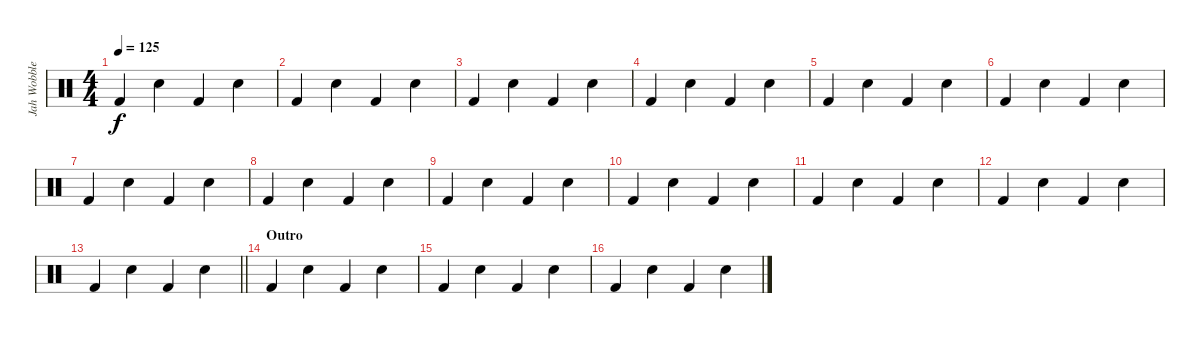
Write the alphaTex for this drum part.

\track ("Jah Wobble  (drums)" "Jah Wobble") {instrument percussion}
\staff {score}
\articulation defaults
\ts (4 4)
\tempo 125
\clef neutral
\ks c "Kick (hit) 2".4{dy f} "Electric Snare (hit)".4 "Kick (hit) 2".4 "Electric Snare (hit)".4
|
"Kick (hit) 2".4 "Electric Snare (hit)".4 "Kick (hit) 2".4 "Electric Snare (hit)".4 |
"Kick (hit) 2".4 "Electric Snare (hit)".4 "Kick (hit) 2".4 "Electric Snare (hit)".4 |
"Kick (hit) 2".4 "Electric Snare (hit)".4 "Kick (hit) 2".4 "Electric Snare (hit)".4 |
"Kick (hit) 2".4 "Electric Snare (hit)".4 "Kick (hit) 2".4 "Electric Snare (hit)".4 |
"Kick (hit) 2".4 "Electric Snare (hit)".4 "Kick (hit) 2".4 "Electric Snare (hit)".4 |
"Kick (hit) 2".4 "Electric Snare (hit)".4 "Kick (hit) 2".4 "Electric Snare (hit)".4 |
"Kick (hit) 2".4 "Electric Snare (hit)".4 "Kick (hit) 2".4 "Electric Snare (hit)".4 |
"Kick (hit) 2".4 "Electric Snare (hit)".4 "Kick (hit) 2".4 "Electric Snare (hit)".4 |
"Kick (hit) 2".4 "Electric Snare (hit)".4 "Kick (hit) 2".4 "Electric Snare (hit)".4 |
"Kick (hit) 2".4 "Electric Snare (hit)".4 "Kick (hit) 2".4 "Electric Snare (hit)".4 |
"Kick (hit) 2".4 "Electric Snare (hit)".4 "Kick (hit) 2".4 "Electric Snare (hit)".4 |
\barLineRight lightlight "Kick (hit) 2".4 "Electric Snare (hit)".4 "Kick (hit) 2".4 "Electric Snare (hit)".4
|
\section ("" "Outro")
"Kick (hit) 2".4 "Electric Snare (hit)".4 "Kick (hit) 2".4 "Electric Snare (hit)".4 |
"Kick (hit) 2".4 "Electric Snare (hit)".4 "Kick (hit) 2".4 "Electric Snare (hit)".4 |
"Kick (hit) 2".4 "Electric Snare (hit)".4 "Kick (hit) 2".4 "Electric Snare (hit)".4
